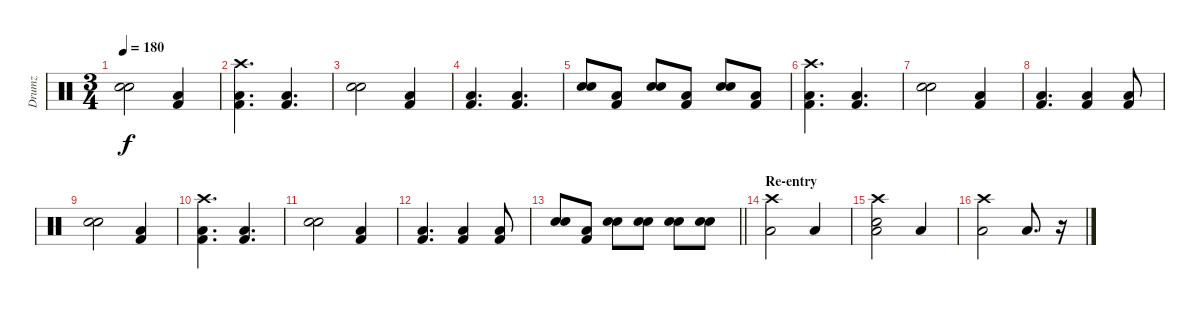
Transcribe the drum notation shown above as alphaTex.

\track ("Drumz" "Drumz") {instrument percussion}
\staff {score}
\articulation defaults
\ts (3 4)
\tempo 180
\clef neutral
\ks c
("Electric Snare (hit)" "Electric Snare (hit)").2{dy f} ("Kick (hit) 2" "Low Floor Tom (hit)").4 |
("Kick (hit) 2" "Low Floor Tom (hit)" "Crash high (hit)").4{d} ("Kick (hit) 2" "Low Floor Tom (hit)").4{d} |
("Electric Snare (hit)" "Electric Snare (hit)").2 ("Kick (hit) 2" "Low Floor Tom (hit)").4 |
("Kick (hit) 2" "Low Floor Tom (hit)").4{d} ("Kick (hit) 2" "Low Floor Tom (hit)").4{d} |
("Electric Snare (hit)" "Electric Snare (hit)").8 ("Kick (hit) 2" "Low Floor Tom (hit)").8 ("Electric Snare (hit)" "Electric Snare (hit)").8 ("Kick (hit) 2" "Low Floor Tom (hit)").8 ("Electric Snare (hit)" "Electric Snare (hit)").8 ("Kick (hit) 2" "Low Floor Tom (hit)").8 |
("Kick (hit) 2" "Low Floor Tom (hit)" "Crash high (hit)").4{d} ("Kick (hit) 2" "Low Floor Tom (hit)").4{d} |
("Electric Snare (hit)" "Electric Snare (hit)").2 ("Kick (hit) 2" "Low Floor Tom (hit)").4 |
("Kick (hit) 2" "Low Floor Tom (hit)").4{d} ("Kick (hit) 2" "Low Floor Tom (hit)").4 ("Kick (hit) 2" "Low Floor Tom (hit)").8 |
("Electric Snare (hit)" "Electric Snare (hit)").2 ("Kick (hit) 2" "Low Floor Tom (hit)").4 |
("Kick (hit) 2" "Low Floor Tom (hit)" "Crash high (hit)").4{d} ("Kick (hit) 2" "Low Floor Tom (hit)").4{d} |
("Electric Snare (hit)" "Electric Snare (hit)").2 ("Kick (hit) 2" "Low Floor Tom (hit)").4 |
("Kick (hit) 2" "Low Floor Tom (hit)").4{d} ("Kick (hit) 2" "Low Floor Tom (hit)").4 ("Kick (hit) 2" "Low Floor Tom (hit)").8 |
\barLineRight lightlight
("Electric Snare (hit)" "Electric Snare (hit)").8 ("Kick (hit) 2" "Low Floor Tom (hit)").8 ("Electric Snare (hit)" "Electric Snare (hit)").8 ("Electric Snare (hit)" "Electric Snare (hit)").8 ("Electric Snare (hit)" "Electric Snare (hit)").8 ("Electric Snare (hit)" "Electric Snare (hit)").8 |
\section ("" "Re-entry")
("Low Floor Tom (hit)" "Crash high (hit)").2 "Low Floor Tom (hit)".4 |
("Low Floor Tom (hit)" "Crash high (hit)" "Electric Snare (hit)").2 "Low Floor Tom (hit)".4 |
("Low Floor Tom (hit)" "Crash high (hit)").2 "Low Floor Tom (hit)".8{d} r.16
